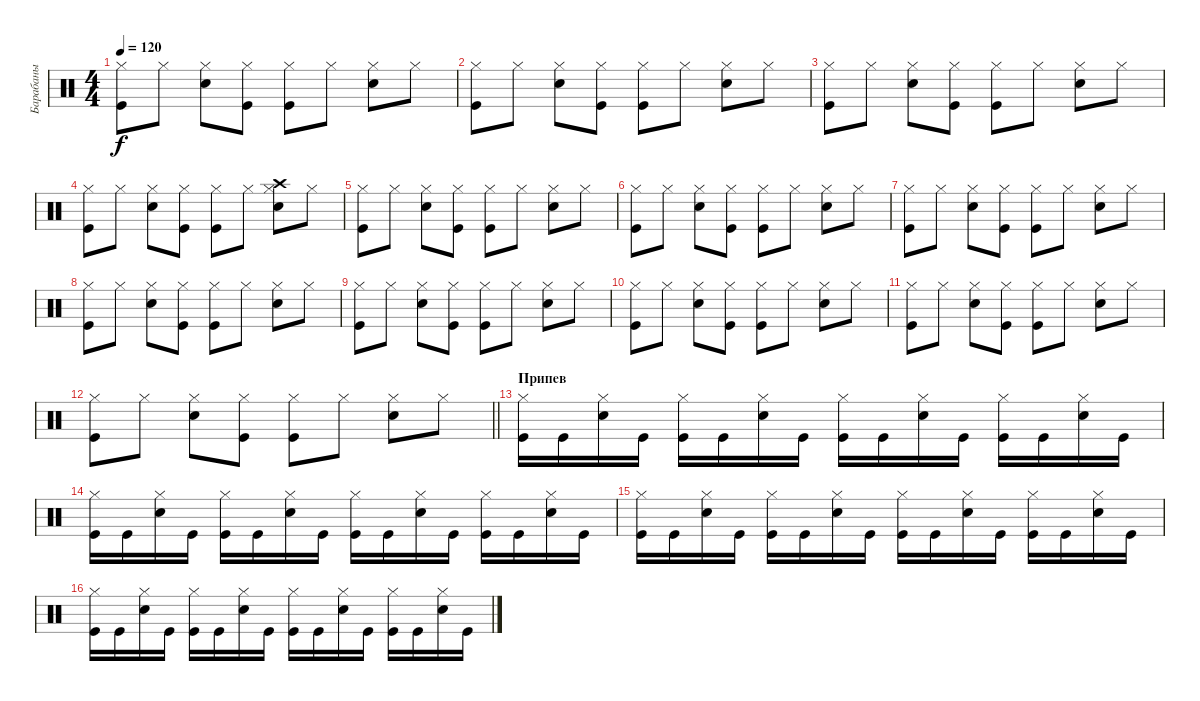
\track ("Барабаны" "Барабаны") {instrument percussion}
\staff {score}
\articulation defaults
\ts (4 4)
\tempo 120
\clef neutral
\ks c
("Kick (hit)" "Hi-Hat (closed)").8{dy f} "Hi-Hat (closed)".8 ("Snare (hit) 2" "Hi-Hat (closed)").8 ("Kick (hit)" "Hi-Hat (closed)").8 ("Kick (hit)" "Hi-Hat (closed)").8 "Hi-Hat (closed)".8 ("Snare (hit) 2" "Hi-Hat (closed)").8 "Hi-Hat (closed)".8 |
("Kick (hit)" "Hi-Hat (closed)").8 "Hi-Hat (closed)".8 ("Snare (hit) 2" "Hi-Hat (closed)").8 ("Kick (hit)" "Hi-Hat (closed)").8 ("Kick (hit)" "Hi-Hat (closed)").8 "Hi-Hat (closed)".8 ("Snare (hit) 2" "Hi-Hat (closed)").8 "Hi-Hat (closed)".8 |
("Kick (hit)" "Hi-Hat (closed)").8 "Hi-Hat (closed)".8 ("Snare (hit) 2" "Hi-Hat (closed)").8 ("Kick (hit)" "Hi-Hat (closed)").8 ("Kick (hit)" "Hi-Hat (closed)").8 "Hi-Hat (closed)".8 ("Snare (hit) 2" "Hi-Hat (closed)").8 "Hi-Hat (closed)".8 |
("Kick (hit)" "Hi-Hat (closed)").8 "Hi-Hat (closed)".8 ("Snare (hit) 2" "Hi-Hat (closed)").8 ("Kick (hit)" "Hi-Hat (closed)").8 ("Kick (hit)" "Hi-Hat (closed)").8 "Hi-Hat (closed)".8 ("Snare (hit) 2" "Hi-Hat (closed)" "Crash high (hit)").8 "Hi-Hat (closed)".8 |
("Kick (hit)" "Hi-Hat (closed)").8 "Hi-Hat (closed)".8 ("Snare (hit) 2" "Hi-Hat (closed)").8 ("Kick (hit)" "Hi-Hat (closed)").8 ("Kick (hit)" "Hi-Hat (closed)").8 "Hi-Hat (closed)".8 ("Snare (hit) 2" "Hi-Hat (closed)").8 "Hi-Hat (closed)".8 |
("Kick (hit)" "Hi-Hat (closed)").8 "Hi-Hat (closed)".8 ("Snare (hit) 2" "Hi-Hat (closed)").8 ("Kick (hit)" "Hi-Hat (closed)").8 ("Kick (hit)" "Hi-Hat (closed)").8 "Hi-Hat (closed)".8 ("Snare (hit) 2" "Hi-Hat (closed)").8 "Hi-Hat (closed)".8 |
("Kick (hit)" "Hi-Hat (closed)").8 "Hi-Hat (closed)".8 ("Snare (hit) 2" "Hi-Hat (closed)").8 ("Kick (hit)" "Hi-Hat (closed)").8 ("Kick (hit)" "Hi-Hat (closed)").8 "Hi-Hat (closed)".8 ("Snare (hit) 2" "Hi-Hat (closed)").8 "Hi-Hat (closed)".8 |
("Kick (hit)" "Hi-Hat (closed)").8 "Hi-Hat (closed)".8 ("Snare (hit) 2" "Hi-Hat (closed)").8 ("Kick (hit)" "Hi-Hat (closed)").8 ("Kick (hit)" "Hi-Hat (closed)").8 "Hi-Hat (closed)".8 ("Snare (hit) 2" "Hi-Hat (closed)").8 "Hi-Hat (closed)".8 |
("Kick (hit)" "Hi-Hat (closed)").8 "Hi-Hat (closed)".8 ("Snare (hit) 2" "Hi-Hat (closed)").8 ("Kick (hit)" "Hi-Hat (closed)").8 ("Kick (hit)" "Hi-Hat (closed)").8 "Hi-Hat (closed)".8 ("Snare (hit) 2" "Hi-Hat (closed)").8 "Hi-Hat (closed)".8 |
("Kick (hit)" "Hi-Hat (closed)").8 "Hi-Hat (closed)".8 ("Snare (hit) 2" "Hi-Hat (closed)").8 ("Kick (hit)" "Hi-Hat (closed)").8 ("Kick (hit)" "Hi-Hat (closed)").8 "Hi-Hat (closed)".8 ("Snare (hit) 2" "Hi-Hat (closed)").8 "Hi-Hat (closed)".8 |
("Kick (hit)" "Hi-Hat (closed)").8 "Hi-Hat (closed)".8 ("Snare (hit) 2" "Hi-Hat (closed)").8 ("Kick (hit)" "Hi-Hat (closed)").8 ("Kick (hit)" "Hi-Hat (closed)").8 "Hi-Hat (closed)".8 ("Snare (hit) 2" "Hi-Hat (closed)").8 "Hi-Hat (closed)".8 |
\barLineRight lightlight
("Kick (hit)" "Hi-Hat (closed)").8 "Hi-Hat (closed)".8 ("Snare (hit) 2" "Hi-Hat (closed)").8 ("Kick (hit)" "Hi-Hat (closed)").8 ("Kick (hit)" "Hi-Hat (closed)").8 "Hi-Hat (closed)".8 ("Snare (hit) 2" "Hi-Hat (closed)").8 "Hi-Hat (closed)".8 |
\section ("" "Припев")
("Kick (hit)" "Hi-Hat (closed)").16 "Kick (hit)".16 ("Snare (hit) 2" "Hi-Hat (closed)").16 "Kick (hit)".16 ("Kick (hit)" "Hi-Hat (closed)").16 "Kick (hit)".16 ("Snare (hit) 2" "Hi-Hat (closed)").16 "Kick (hit)".16 ("Kick (hit)" "Hi-Hat (closed)").16 "Kick (hit)".16 ("Snare (hit) 2" "Hi-Hat (closed)").16 "Kick (hit)".16 ("Kick (hit)" "Hi-Hat (closed)").16 "Kick (hit)".16 ("Snare (hit) 2" "Hi-Hat (closed)").16 "Kick (hit)".16 |
("Kick (hit)" "Hi-Hat (closed)").16 "Kick (hit)".16 ("Snare (hit) 2" "Hi-Hat (closed)").16 "Kick (hit)".16 ("Kick (hit)" "Hi-Hat (closed)").16 "Kick (hit)".16 ("Snare (hit) 2" "Hi-Hat (closed)").16 "Kick (hit)".16 ("Kick (hit)" "Hi-Hat (closed)").16 "Kick (hit)".16 ("Snare (hit) 2" "Hi-Hat (closed)").16 "Kick (hit)".16 ("Kick (hit)" "Hi-Hat (closed)").16 "Kick (hit)".16 ("Snare (hit) 2" "Hi-Hat (closed)").16 "Kick (hit)".16 |
("Kick (hit)" "Hi-Hat (closed)").16 "Kick (hit)".16 ("Snare (hit) 2" "Hi-Hat (closed)").16 "Kick (hit)".16 ("Kick (hit)" "Hi-Hat (closed)").16 "Kick (hit)".16 ("Snare (hit) 2" "Hi-Hat (closed)").16 "Kick (hit)".16 ("Kick (hit)" "Hi-Hat (closed)").16 "Kick (hit)".16 ("Snare (hit) 2" "Hi-Hat (closed)").16 "Kick (hit)".16 ("Kick (hit)" "Hi-Hat (closed)").16 "Kick (hit)".16 ("Snare (hit) 2" "Hi-Hat (closed)").16 "Kick (hit)".16 |
("Kick (hit)" "Hi-Hat (closed)").16 "Kick (hit)".16 ("Snare (hit) 2" "Hi-Hat (closed)").16 "Kick (hit)".16 ("Kick (hit)" "Hi-Hat (closed)").16 "Kick (hit)".16 ("Snare (hit) 2" "Hi-Hat (closed)").16 "Kick (hit)".16 ("Kick (hit)" "Hi-Hat (closed)").16 "Kick (hit)".16 ("Snare (hit) 2" "Hi-Hat (closed)").16 "Kick (hit)".16 ("Kick (hit)" "Hi-Hat (closed)").16 "Kick (hit)".16 ("Snare (hit) 2" "Hi-Hat (closed)").16 "Kick (hit)".16
